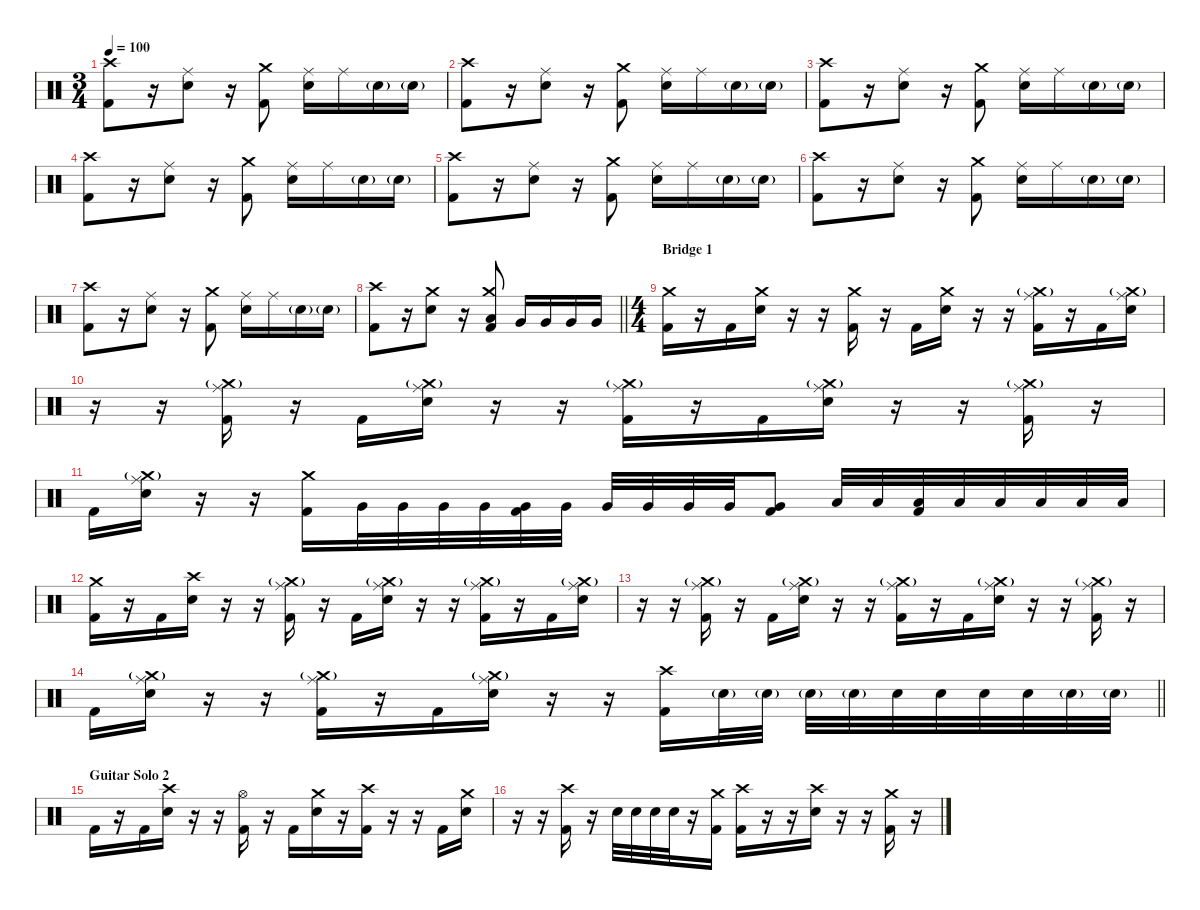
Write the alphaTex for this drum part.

\defaultSystemsLayout 4
\hideDynamics
\bracketExtendMode nobrackets
\singleTrackTrackNamePolicy hidden
\multiTrackTrackNamePolicy hidden
\firstSystemTrackNameMode fullname
\firstSystemTrackNameOrientation horizontal
\otherSystemsTrackNameOrientation horizontal
\track ("Bill Ward - Drums" "drm.") {instrument percussion}
\staff {score}
\articulation defaults
\ts (3 4)
\tempo 100
\clef neutral
\ks c
("Crash high (hit)" "Kick (hit) 2").8{dy f} r.16 ("Ride (middle)" "Snare (hit) 2").8 r.16 ("Crash medium (hit)" "Kick (hit) 2").8 ("Ride (middle)" "Snare (hit) 2").16 "Ride (middle)".16 "Snare (hit) 2"{g}.16{dy mf} "Snare (hit) 2"{g}.16 |
("Crash high (hit)" "Kick (hit) 2").8{dy f} r.16 ("Ride (middle)" "Snare (hit) 2").8 r.16 ("Crash medium (hit)" "Kick (hit) 2").8 ("Ride (middle)" "Snare (hit) 2").16 "Ride (middle)".16 "Snare (hit) 2"{g}.16{dy mf} "Snare (hit) 2"{g}.16 |
("Crash high (hit)" "Kick (hit) 2").8{dy f} r.16 ("Ride (middle)" "Snare (hit) 2").8 r.16 ("Crash medium (hit)" "Kick (hit) 2").8 ("Ride (middle)" "Snare (hit) 2").16 "Ride (middle)".16 "Snare (hit) 2"{g}.16{dy mf} "Snare (hit) 2"{g}.16 |
("Crash high (hit)" "Kick (hit) 2").8{dy f} r.16 ("Ride (middle)" "Snare (hit) 2").8 r.16 ("Crash medium (hit)" "Kick (hit) 2").8 ("Ride (middle)" "Snare (hit) 2").16 "Ride (middle)".16 "Snare (hit) 2"{g}.16{dy mf} "Snare (hit) 2"{g}.16 |
("Crash high (hit)" "Kick (hit) 2").8{dy f} r.16 ("Ride (middle)" "Snare (hit) 2").8 r.16 ("Crash medium (hit)" "Kick (hit) 2").8 ("Ride (middle)" "Snare (hit) 2").16 "Ride (middle)".16 "Snare (hit) 2"{g}.16{dy mf} "Snare (hit) 2"{g}.16 |
("Crash high (hit)" "Kick (hit) 2").8{dy f} r.16 ("Ride (middle)" "Snare (hit) 2").8 r.16 ("Crash medium (hit)" "Kick (hit) 2").8 ("Ride (middle)" "Snare (hit) 2").16 "Ride (middle)".16 "Snare (hit) 2"{g}.16{dy mf} "Snare (hit) 2"{g}.16 |
("Crash high (hit)" "Kick (hit) 2").8{dy f} r.16 ("Ride (middle)" "Snare (hit) 2").8 r.16 ("Crash medium (hit)" "Kick (hit) 2").8 ("Ride (middle)" "Snare (hit) 2").16 "Ride (middle)".16 "Snare (hit) 2"{g}.16{dy mf} "Snare (hit) 2"{g}.16 |
\barLineRight lightlight
("Crash high (hit)" "Kick (hit) 2").8{dy f} r.16 ("Crash medium (hit)" "Snare (hit) 2").8 r.16 ("Crash medium (hit)" "Low Tom (hit)" "Kick (hit) 2").8 "Very Low Tom (hit)".16 "Very Low Tom (hit)".16 "Very Low Tom (hit)".16 "Very Low Tom (hit)".16 |
\ts (4 4)
\beaming (8 2 2 2 2)
\section ("" "Bridge 1")
("Crash medium (hit)" "Kick (hit) 2").16 r.16 "Kick (hit) 2".16 ("Crash medium (hit)" "Snare (hit) 2").16 r.16 r.16 ("Crash medium (hit)" "Kick (hit) 2").16 r.16 "Kick (hit) 2".16 ("Crash medium (hit)" "Snare (hit) 2").16 r.16 r.16 ("Ride (middle)" "Crash medium (hit)"{g} "Kick (hit) 2").16 r.16 "Kick (hit) 2".16 ("Ride (middle)" "Crash medium (hit)"{g} "Snare (hit) 2").16 |
r.16 r.16 ("Ride (middle)" "Crash medium (hit)"{g} "Kick (hit) 2").16 r.16 "Kick (hit) 2".16 ("Ride (middle)" "Crash medium (hit)"{g} "Snare (hit) 2").16 r.16 r.16 ("Ride (middle)" "Crash medium (hit)"{g} "Kick (hit) 2").16 r.16 "Kick (hit) 2".16 ("Ride (middle)" "Crash medium (hit)"{g} "Snare (hit) 2").16 r.16 r.16 ("Ride (middle)" "Crash medium (hit)"{g} "Kick (hit) 2").16 r.16 |
"Kick (hit) 2".16 ("Ride (middle)" "Crash medium (hit)"{g} "Snare (hit) 2").16 r.16 r.16 ("Crash medium (hit)" "Kick (hit) 2").16 "Very Low Tom (hit)".32 "Very Low Tom (hit)".32 "Very Low Tom (hit)".32 "Very Low Tom (hit)".32 ("Very Low Tom (hit)" "Kick (hit) 2").32 "Very Low Tom (hit)".32 "Very Low Tom (hit)".32 "Very Low Tom (hit)".32 "Very Low Tom (hit)".32 "Very Low Tom (hit)".32 ("Very Low Tom (hit)" "Kick (hit) 2").8 "Low Floor Tom (hit)".32 "Low Floor Tom (hit)".32 ("Low Floor Tom (hit)" "Kick (hit) 2").32 "Low Floor Tom (hit)".32 "Low Floor Tom (hit)".32 "Low Floor Tom (hit)".32 "Low Floor Tom (hit)".32 "Low Floor Tom (hit)".32 |
("Crash medium (hit)" "Kick (hit) 2").16 r.16 "Kick (hit) 2".16 ("Crash high (hit)" "Snare (hit) 2").16 r.16 r.16 ("Ride (middle)" "Crash medium (hit)"{g} "Kick (hit) 2").16 r.16 "Kick (hit) 2".16 ("Ride (middle)" "Crash medium (hit)"{g} "Snare (hit) 2").16 r.16 r.16 ("Ride (middle)" "Crash medium (hit)"{g} "Kick (hit) 2").16 r.16 "Kick (hit) 2".16 ("Ride (middle)" "Crash medium (hit)"{g} "Snare (hit) 2").16 |
r.16 r.16 ("Ride (middle)" "Crash medium (hit)"{g} "Kick (hit) 2").16 r.16 "Kick (hit) 2".16 ("Ride (middle)" "Crash medium (hit)"{g} "Snare (hit) 2").16 r.16 r.16 ("Ride (middle)" "Crash medium (hit)"{g} "Kick (hit) 2").16 r.16 "Kick (hit) 2".16 ("Ride (middle)" "Crash medium (hit)"{g} "Snare (hit) 2").16 r.16 r.16 ("Ride (middle)" "Crash medium (hit)"{g} "Kick (hit) 2").16 r.16 |
\barLineRight lightlight "Kick (hit) 2".16
("Ride (middle)" "Crash medium (hit)"{g} "Snare (hit) 2").16 r.16 r.16 ("Ride (middle)" "Crash medium (hit)"{g} "Kick (hit) 2").16 r.16 "Kick (hit) 2".16 ("Ride (middle)" "Crash medium (hit)"{g} "Snare (hit) 2").16 r.16 r.16 ("Crash high (hit)" "Kick (hit) 2").16 "Snare (hit) 2"{g}.32{dy mf} "Snare (hit) 2"{g}.32 "Snare (hit) 2"{g}.32 "Snare (hit) 2"{g}.32 "Snare (hit) 2".32{dy f} "Snare (hit) 2".32 "Snare (hit) 2".32 "Snare (hit) 2".32 "Snare (hit) 2"{g}.32{dy mf} "Snare (hit) 2"{g}.32 |
\section ("" "Guitar Solo 2")
"Kick (hit) 2".16{dy f} r.16 "Kick (hit) 2".16 ("Crash high (hit)" "Snare (hit) 2").16 r.16 r.16 ("Hi-Hat (open)" "Kick (hit) 2").16 r.16 "Kick (hit) 2".16 ("Crash medium (hit)" "Snare (hit) 2").16 r.16 ("Crash high (hit)" "Kick (hit) 2").16 r.16 r.16 "Kick (hit) 2".16 ("Crash medium (hit)" "Snare (hit) 2").16 |
r.16 r.16 ("Crash high (hit)" "Kick (hit) 2").16 r.16 "Snare (hit) 2".32 "Snare (hit) 2".32 "Snare (hit) 2".32 "Snare (hit) 2".32 r.16 ("Crash medium (hit)" "Kick (hit) 2").16 ("Crash high (hit)" "Kick (hit) 2").16 r.16 r.16 ("Crash high (hit)" "Snare (hit) 2").16 r.16 r.16 ("Crash medium (hit)" "Kick (hit) 2").16 r.16
